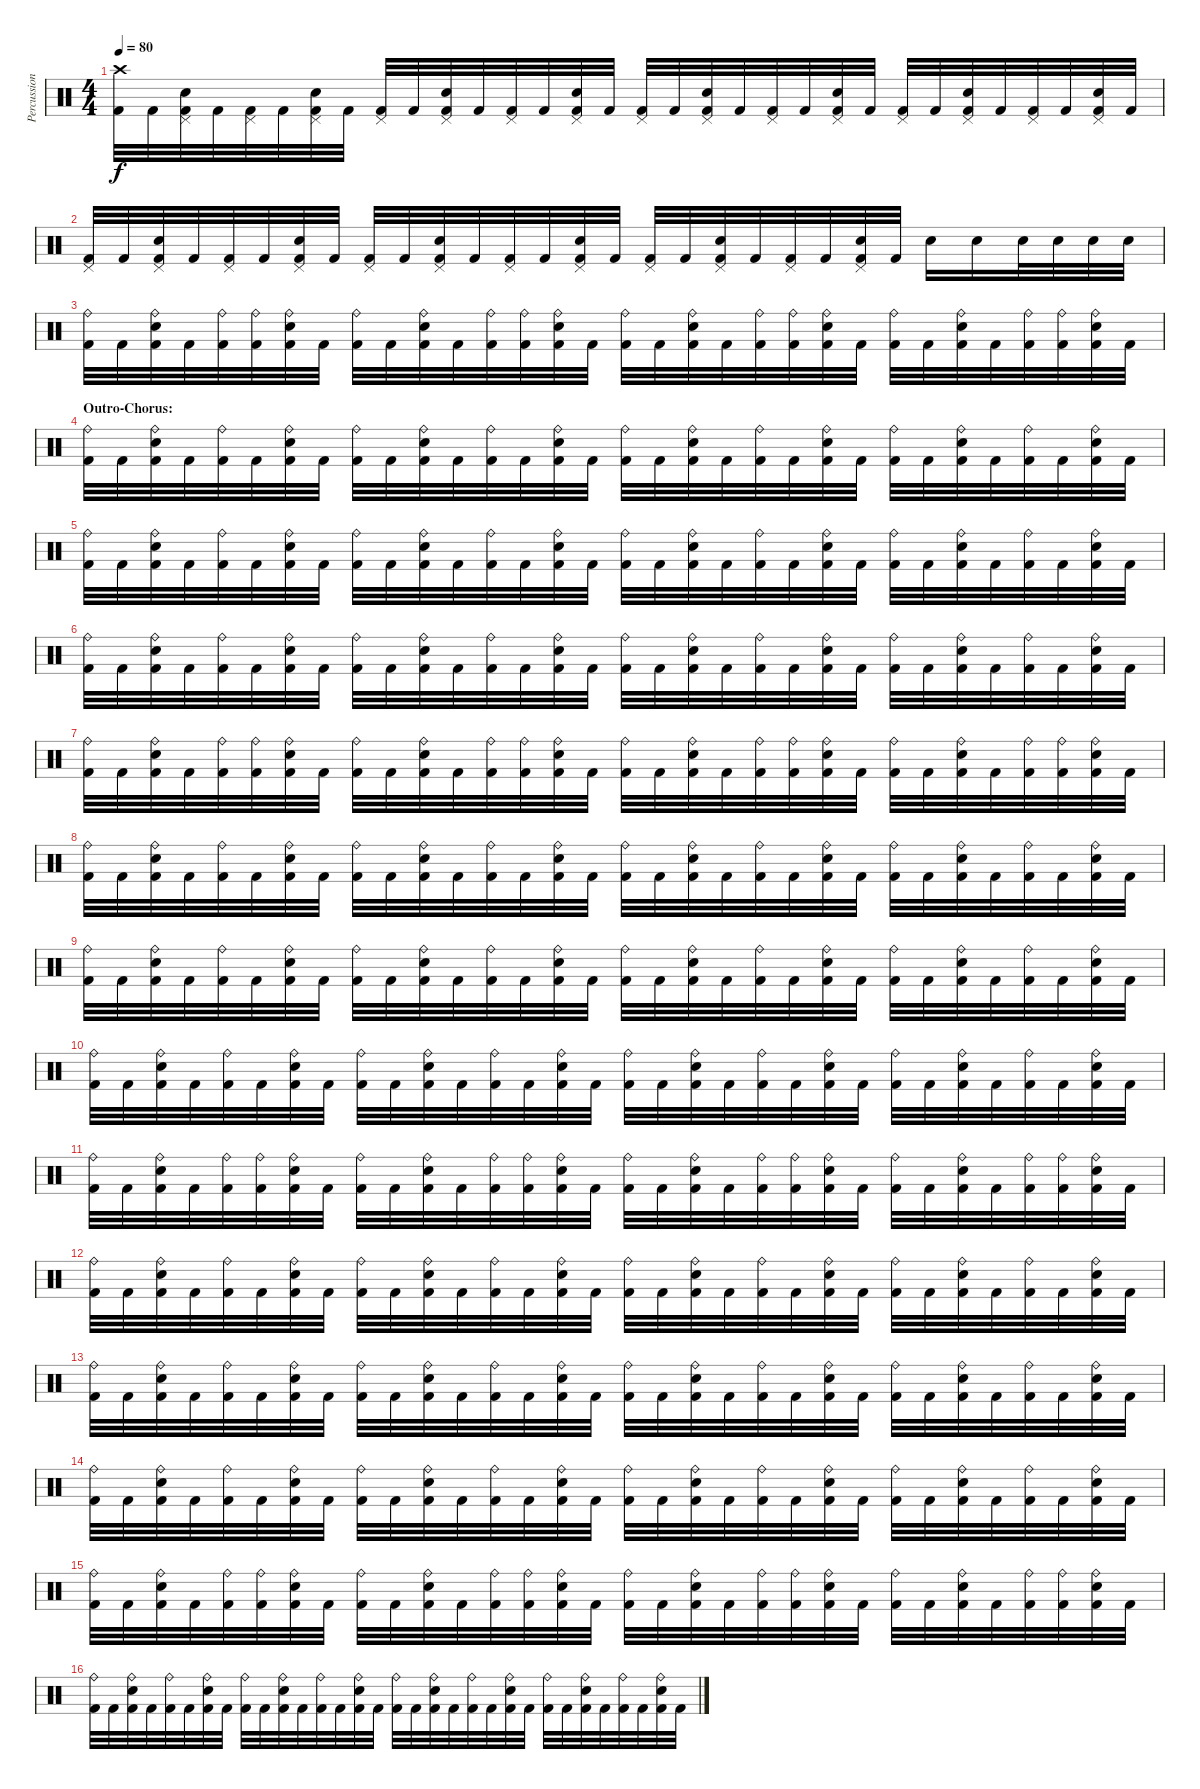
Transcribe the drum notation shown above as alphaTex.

\track ("Percussion" "Percussion") {instrument percussion}
\staff {score}
\articulation defaults
\ts (4 4)
\tempo 80
\clef neutral
\ks c
("Crash high (hit)" "Kick (hit) 2").32{dy f} "Kick (hit) 2".32 ("Pedal Hi-Hat (hit)" "Electric Snare (hit)" "Kick (hit) 2").32 "Kick (hit) 2".32 ("Pedal Hi-Hat (hit)" "Kick (hit) 2").32 "Kick (hit) 2".32 ("Pedal Hi-Hat (hit)" "Electric Snare (hit)" "Kick (hit) 2").32 "Kick (hit) 2".32 ("Pedal Hi-Hat (hit)" "Kick (hit) 2").32 "Kick (hit) 2".32 ("Pedal Hi-Hat (hit)" "Electric Snare (hit)" "Kick (hit) 2").32 "Kick (hit) 2".32 ("Pedal Hi-Hat (hit)" "Kick (hit) 2").32 "Kick (hit) 2".32 ("Pedal Hi-Hat (hit)" "Electric Snare (hit)" "Kick (hit) 2").32 "Kick (hit) 2".32 ("Pedal Hi-Hat (hit)" "Kick (hit) 2").32 "Kick (hit) 2".32 ("Pedal Hi-Hat (hit)" "Electric Snare (hit)" "Kick (hit) 2").32 "Kick (hit) 2".32 ("Pedal Hi-Hat (hit)" "Kick (hit) 2").32 "Kick (hit) 2".32 ("Pedal Hi-Hat (hit)" "Electric Snare (hit)" "Kick (hit) 2").32 "Kick (hit) 2".32 ("Pedal Hi-Hat (hit)" "Kick (hit) 2").32 "Kick (hit) 2".32 ("Pedal Hi-Hat (hit)" "Electric Snare (hit)" "Kick (hit) 2").32 "Kick (hit) 2".32 ("Pedal Hi-Hat (hit)" "Kick (hit) 2").32 "Kick (hit) 2".32 ("Pedal Hi-Hat (hit)" "Electric Snare (hit)" "Kick (hit) 2").32 "Kick (hit) 2".32 |
("Pedal Hi-Hat (hit)" "Kick (hit) 2").32 "Kick (hit) 2".32 ("Pedal Hi-Hat (hit)" "Electric Snare (hit)" "Kick (hit) 2").32 "Kick (hit) 2".32 ("Pedal Hi-Hat (hit)" "Kick (hit) 2").32 "Kick (hit) 2".32 ("Pedal Hi-Hat (hit)" "Electric Snare (hit)" "Kick (hit) 2").32 "Kick (hit) 2".32 ("Pedal Hi-Hat (hit)" "Kick (hit) 2").32 "Kick (hit) 2".32 ("Pedal Hi-Hat (hit)" "Electric Snare (hit)" "Kick (hit) 2").32 "Kick (hit) 2".32 ("Pedal Hi-Hat (hit)" "Kick (hit) 2").32 "Kick (hit) 2".32 ("Pedal Hi-Hat (hit)" "Electric Snare (hit)" "Kick (hit) 2").32 "Kick (hit) 2".32 ("Pedal Hi-Hat (hit)" "Kick (hit) 2").32 "Kick (hit) 2".32 ("Pedal Hi-Hat (hit)" "Electric Snare (hit)" "Kick (hit) 2").32 "Kick (hit) 2".32 ("Pedal Hi-Hat (hit)" "Kick (hit) 2").32 "Kick (hit) 2".32 ("Pedal Hi-Hat (hit)" "Electric Snare (hit)" "Kick (hit) 2").32 "Kick (hit) 2".32 "Electric Snare (hit)".16 "Electric Snare (hit)".16 "Electric Snare (hit)".32 "Electric Snare (hit)".32 "Electric Snare (hit)".32 "Electric Snare (hit)".32 |
("Ride (bell)" "Kick (hit) 2").32 "Kick (hit) 2".32 ("Ride (bell)" "Electric Snare (hit)" "Kick (hit) 2").32 "Kick (hit) 2".32 ("Ride (bell)" "Kick (hit) 2").32 ("Ride (bell)" "Kick (hit) 2").32 ("Ride (bell)" "Electric Snare (hit)" "Kick (hit) 2").32 "Kick (hit) 2".32 ("Ride (bell)" "Kick (hit) 2").32 "Kick (hit) 2".32 ("Ride (bell)" "Electric Snare (hit)" "Kick (hit) 2").32 "Kick (hit) 2".32 ("Ride (bell)" "Kick (hit) 2").32 ("Ride (bell)" "Kick (hit) 2").32 ("Ride (bell)" "Electric Snare (hit)" "Kick (hit) 2").32 "Kick (hit) 2".32 ("Ride (bell)" "Kick (hit) 2").32 "Kick (hit) 2".32 ("Ride (bell)" "Electric Snare (hit)" "Kick (hit) 2").32 "Kick (hit) 2".32 ("Ride (bell)" "Kick (hit) 2").32 ("Ride (bell)" "Kick (hit) 2").32 ("Ride (bell)" "Electric Snare (hit)" "Kick (hit) 2").32 "Kick (hit) 2".32 ("Ride (bell)" "Kick (hit) 2").32 "Kick (hit) 2".32 ("Ride (bell)" "Electric Snare (hit)" "Kick (hit) 2").32 "Kick (hit) 2".32 ("Ride (bell)" "Kick (hit) 2").32 ("Ride (bell)" "Kick (hit) 2").32 ("Ride (bell)" "Electric Snare (hit)" "Kick (hit) 2").32 "Kick (hit) 2".32 |
\section ("" "Outro-Chorus:")
("Ride (bell)" "Kick (hit) 2").32 "Kick (hit) 2".32 ("Ride (bell)" "Electric Snare (hit)" "Kick (hit) 2").32 "Kick (hit) 2".32 ("Ride (bell)" "Kick (hit) 2").32 "Kick (hit) 2".32 ("Ride (bell)" "Electric Snare (hit)" "Kick (hit) 2").32 "Kick (hit) 2".32 ("Ride (bell)" "Kick (hit) 2").32 "Kick (hit) 2".32 ("Ride (bell)" "Electric Snare (hit)" "Kick (hit) 2").32 "Kick (hit) 2".32 ("Ride (bell)" "Kick (hit) 2").32 "Kick (hit) 2".32 ("Ride (bell)" "Electric Snare (hit)" "Kick (hit) 2").32 "Kick (hit) 2".32 ("Ride (bell)" "Kick (hit) 2").32 "Kick (hit) 2".32 ("Ride (bell)" "Electric Snare (hit)" "Kick (hit) 2").32 "Kick (hit) 2".32 ("Ride (bell)" "Kick (hit) 2").32 "Kick (hit) 2".32 ("Ride (bell)" "Electric Snare (hit)" "Kick (hit) 2").32 "Kick (hit) 2".32 ("Ride (bell)" "Kick (hit) 2").32 "Kick (hit) 2".32 ("Ride (bell)" "Electric Snare (hit)" "Kick (hit) 2").32 "Kick (hit) 2".32 ("Ride (bell)" "Kick (hit) 2").32 "Kick (hit) 2".32 ("Ride (bell)" "Electric Snare (hit)" "Kick (hit) 2").32 "Kick (hit) 2".32 |
("Ride (bell)" "Kick (hit) 2").32 "Kick (hit) 2".32 ("Ride (bell)" "Electric Snare (hit)" "Kick (hit) 2").32 "Kick (hit) 2".32 ("Ride (bell)" "Kick (hit) 2").32 "Kick (hit) 2".32 ("Ride (bell)" "Electric Snare (hit)" "Kick (hit) 2").32 "Kick (hit) 2".32 ("Ride (bell)" "Kick (hit) 2").32 "Kick (hit) 2".32 ("Ride (bell)" "Electric Snare (hit)" "Kick (hit) 2").32 "Kick (hit) 2".32 ("Ride (bell)" "Kick (hit) 2").32 "Kick (hit) 2".32 ("Ride (bell)" "Electric Snare (hit)" "Kick (hit) 2").32 "Kick (hit) 2".32 ("Ride (bell)" "Kick (hit) 2").32 "Kick (hit) 2".32 ("Ride (bell)" "Electric Snare (hit)" "Kick (hit) 2").32 "Kick (hit) 2".32 ("Ride (bell)" "Kick (hit) 2").32 "Kick (hit) 2".32 ("Ride (bell)" "Electric Snare (hit)" "Kick (hit) 2").32 "Kick (hit) 2".32 ("Ride (bell)" "Kick (hit) 2").32 "Kick (hit) 2".32 ("Ride (bell)" "Electric Snare (hit)" "Kick (hit) 2").32 "Kick (hit) 2".32 ("Ride (bell)" "Kick (hit) 2").32 "Kick (hit) 2".32 ("Ride (bell)" "Electric Snare (hit)" "Kick (hit) 2").32 "Kick (hit) 2".32 |
("Ride (bell)" "Kick (hit) 2").32 "Kick (hit) 2".32 ("Ride (bell)" "Electric Snare (hit)" "Kick (hit) 2").32 "Kick (hit) 2".32 ("Ride (bell)" "Kick (hit) 2").32 "Kick (hit) 2".32 ("Ride (bell)" "Electric Snare (hit)" "Kick (hit) 2").32 "Kick (hit) 2".32 ("Ride (bell)" "Kick (hit) 2").32 "Kick (hit) 2".32 ("Ride (bell)" "Electric Snare (hit)" "Kick (hit) 2").32 "Kick (hit) 2".32 ("Ride (bell)" "Kick (hit) 2").32 "Kick (hit) 2".32 ("Ride (bell)" "Electric Snare (hit)" "Kick (hit) 2").32 "Kick (hit) 2".32 ("Ride (bell)" "Kick (hit) 2").32 "Kick (hit) 2".32 ("Ride (bell)" "Electric Snare (hit)" "Kick (hit) 2").32 "Kick (hit) 2".32 ("Ride (bell)" "Kick (hit) 2").32 "Kick (hit) 2".32 ("Ride (bell)" "Electric Snare (hit)" "Kick (hit) 2").32 "Kick (hit) 2".32 ("Ride (bell)" "Kick (hit) 2").32 "Kick (hit) 2".32 ("Ride (bell)" "Electric Snare (hit)" "Kick (hit) 2").32 "Kick (hit) 2".32 ("Ride (bell)" "Kick (hit) 2").32 "Kick (hit) 2".32 ("Ride (bell)" "Electric Snare (hit)" "Kick (hit) 2").32 "Kick (hit) 2".32 |
("Ride (bell)" "Kick (hit) 2").32 "Kick (hit) 2".32 ("Ride (bell)" "Electric Snare (hit)" "Kick (hit) 2").32 "Kick (hit) 2".32 ("Ride (bell)" "Kick (hit) 2").32 ("Ride (bell)" "Kick (hit) 2").32 ("Ride (bell)" "Electric Snare (hit)" "Kick (hit) 2").32 "Kick (hit) 2".32 ("Ride (bell)" "Kick (hit) 2").32 "Kick (hit) 2".32 ("Ride (bell)" "Electric Snare (hit)" "Kick (hit) 2").32 "Kick (hit) 2".32 ("Ride (bell)" "Kick (hit) 2").32 ("Ride (bell)" "Kick (hit) 2").32 ("Ride (bell)" "Electric Snare (hit)" "Kick (hit) 2").32 "Kick (hit) 2".32 ("Ride (bell)" "Kick (hit) 2").32 "Kick (hit) 2".32 ("Ride (bell)" "Electric Snare (hit)" "Kick (hit) 2").32 "Kick (hit) 2".32 ("Ride (bell)" "Kick (hit) 2").32 ("Ride (bell)" "Kick (hit) 2").32 ("Ride (bell)" "Electric Snare (hit)" "Kick (hit) 2").32 "Kick (hit) 2".32 ("Ride (bell)" "Kick (hit) 2").32 "Kick (hit) 2".32 ("Ride (bell)" "Electric Snare (hit)" "Kick (hit) 2").32 "Kick (hit) 2".32 ("Ride (bell)" "Kick (hit) 2").32 ("Ride (bell)" "Kick (hit) 2").32 ("Ride (bell)" "Electric Snare (hit)" "Kick (hit) 2").32 "Kick (hit) 2".32 |
("Ride (bell)" "Kick (hit) 2").32 "Kick (hit) 2".32 ("Ride (bell)" "Electric Snare (hit)" "Kick (hit) 2").32 "Kick (hit) 2".32 ("Ride (bell)" "Kick (hit) 2").32 "Kick (hit) 2".32 ("Ride (bell)" "Electric Snare (hit)" "Kick (hit) 2").32 "Kick (hit) 2".32 ("Ride (bell)" "Kick (hit) 2").32 "Kick (hit) 2".32 ("Ride (bell)" "Electric Snare (hit)" "Kick (hit) 2").32 "Kick (hit) 2".32 ("Ride (bell)" "Kick (hit) 2").32 "Kick (hit) 2".32 ("Ride (bell)" "Electric Snare (hit)" "Kick (hit) 2").32 "Kick (hit) 2".32 ("Ride (bell)" "Kick (hit) 2").32 "Kick (hit) 2".32 ("Ride (bell)" "Electric Snare (hit)" "Kick (hit) 2").32 "Kick (hit) 2".32 ("Ride (bell)" "Kick (hit) 2").32 "Kick (hit) 2".32 ("Ride (bell)" "Electric Snare (hit)" "Kick (hit) 2").32 "Kick (hit) 2".32 ("Ride (bell)" "Kick (hit) 2").32 "Kick (hit) 2".32 ("Ride (bell)" "Electric Snare (hit)" "Kick (hit) 2").32 "Kick (hit) 2".32 ("Ride (bell)" "Kick (hit) 2").32 "Kick (hit) 2".32 ("Ride (bell)" "Electric Snare (hit)" "Kick (hit) 2").32 "Kick (hit) 2".32 |
("Ride (bell)" "Kick (hit) 2").32 "Kick (hit) 2".32 ("Ride (bell)" "Electric Snare (hit)" "Kick (hit) 2").32 "Kick (hit) 2".32 ("Ride (bell)" "Kick (hit) 2").32 "Kick (hit) 2".32 ("Ride (bell)" "Electric Snare (hit)" "Kick (hit) 2").32 "Kick (hit) 2".32 ("Ride (bell)" "Kick (hit) 2").32 "Kick (hit) 2".32 ("Ride (bell)" "Electric Snare (hit)" "Kick (hit) 2").32 "Kick (hit) 2".32 ("Ride (bell)" "Kick (hit) 2").32 "Kick (hit) 2".32 ("Ride (bell)" "Electric Snare (hit)" "Kick (hit) 2").32 "Kick (hit) 2".32 ("Ride (bell)" "Kick (hit) 2").32 "Kick (hit) 2".32 ("Ride (bell)" "Electric Snare (hit)" "Kick (hit) 2").32 "Kick (hit) 2".32 ("Ride (bell)" "Kick (hit) 2").32 "Kick (hit) 2".32 ("Ride (bell)" "Electric Snare (hit)" "Kick (hit) 2").32 "Kick (hit) 2".32 ("Ride (bell)" "Kick (hit) 2").32 "Kick (hit) 2".32 ("Ride (bell)" "Electric Snare (hit)" "Kick (hit) 2").32 "Kick (hit) 2".32 ("Ride (bell)" "Kick (hit) 2").32 "Kick (hit) 2".32 ("Ride (bell)" "Electric Snare (hit)" "Kick (hit) 2").32 "Kick (hit) 2".32 |
("Ride (bell)" "Kick (hit) 2").32 "Kick (hit) 2".32 ("Ride (bell)" "Electric Snare (hit)" "Kick (hit) 2").32 "Kick (hit) 2".32 ("Ride (bell)" "Kick (hit) 2").32 "Kick (hit) 2".32 ("Ride (bell)" "Electric Snare (hit)" "Kick (hit) 2").32 "Kick (hit) 2".32 ("Ride (bell)" "Kick (hit) 2").32 "Kick (hit) 2".32 ("Ride (bell)" "Electric Snare (hit)" "Kick (hit) 2").32 "Kick (hit) 2".32 ("Ride (bell)" "Kick (hit) 2").32 "Kick (hit) 2".32 ("Ride (bell)" "Electric Snare (hit)" "Kick (hit) 2").32 "Kick (hit) 2".32 ("Ride (bell)" "Kick (hit) 2").32 "Kick (hit) 2".32 ("Ride (bell)" "Electric Snare (hit)" "Kick (hit) 2").32 "Kick (hit) 2".32 ("Ride (bell)" "Kick (hit) 2").32 "Kick (hit) 2".32 ("Ride (bell)" "Electric Snare (hit)" "Kick (hit) 2").32 "Kick (hit) 2".32 ("Ride (bell)" "Kick (hit) 2").32 "Kick (hit) 2".32 ("Ride (bell)" "Electric Snare (hit)" "Kick (hit) 2").32 "Kick (hit) 2".32 ("Ride (bell)" "Kick (hit) 2").32 "Kick (hit) 2".32 ("Ride (bell)" "Electric Snare (hit)" "Kick (hit) 2").32 "Kick (hit) 2".32 |
("Ride (bell)" "Kick (hit) 2").32 "Kick (hit) 2".32 ("Ride (bell)" "Electric Snare (hit)" "Kick (hit) 2").32 "Kick (hit) 2".32 ("Ride (bell)" "Kick (hit) 2").32 ("Ride (bell)" "Kick (hit) 2").32 ("Ride (bell)" "Electric Snare (hit)" "Kick (hit) 2").32 "Kick (hit) 2".32 ("Ride (bell)" "Kick (hit) 2").32 "Kick (hit) 2".32 ("Ride (bell)" "Electric Snare (hit)" "Kick (hit) 2").32 "Kick (hit) 2".32 ("Ride (bell)" "Kick (hit) 2").32 ("Ride (bell)" "Kick (hit) 2").32 ("Ride (bell)" "Electric Snare (hit)" "Kick (hit) 2").32 "Kick (hit) 2".32 ("Ride (bell)" "Kick (hit) 2").32 "Kick (hit) 2".32 ("Ride (bell)" "Electric Snare (hit)" "Kick (hit) 2").32 "Kick (hit) 2".32 ("Ride (bell)" "Kick (hit) 2").32 ("Ride (bell)" "Kick (hit) 2").32 ("Ride (bell)" "Electric Snare (hit)" "Kick (hit) 2").32 "Kick (hit) 2".32 ("Ride (bell)" "Kick (hit) 2").32 "Kick (hit) 2".32 ("Ride (bell)" "Electric Snare (hit)" "Kick (hit) 2").32 "Kick (hit) 2".32 ("Ride (bell)" "Kick (hit) 2").32 ("Ride (bell)" "Kick (hit) 2").32 ("Ride (bell)" "Electric Snare (hit)" "Kick (hit) 2").32 "Kick (hit) 2".32 |
("Ride (bell)" "Kick (hit) 2").32 "Kick (hit) 2".32 ("Ride (bell)" "Electric Snare (hit)" "Kick (hit) 2").32 "Kick (hit) 2".32 ("Ride (bell)" "Kick (hit) 2").32 "Kick (hit) 2".32 ("Ride (bell)" "Electric Snare (hit)" "Kick (hit) 2").32 "Kick (hit) 2".32 ("Ride (bell)" "Kick (hit) 2").32 "Kick (hit) 2".32 ("Ride (bell)" "Electric Snare (hit)" "Kick (hit) 2").32 "Kick (hit) 2".32 ("Ride (bell)" "Kick (hit) 2").32 "Kick (hit) 2".32 ("Ride (bell)" "Electric Snare (hit)" "Kick (hit) 2").32 "Kick (hit) 2".32 ("Ride (bell)" "Kick (hit) 2").32 "Kick (hit) 2".32 ("Ride (bell)" "Electric Snare (hit)" "Kick (hit) 2").32 "Kick (hit) 2".32 ("Ride (bell)" "Kick (hit) 2").32 "Kick (hit) 2".32 ("Ride (bell)" "Electric Snare (hit)" "Kick (hit) 2").32 "Kick (hit) 2".32 ("Ride (bell)" "Kick (hit) 2").32 "Kick (hit) 2".32 ("Ride (bell)" "Electric Snare (hit)" "Kick (hit) 2").32 "Kick (hit) 2".32 ("Ride (bell)" "Kick (hit) 2").32 "Kick (hit) 2".32 ("Ride (bell)" "Electric Snare (hit)" "Kick (hit) 2").32 "Kick (hit) 2".32 |
("Ride (bell)" "Kick (hit) 2").32 "Kick (hit) 2".32 ("Ride (bell)" "Electric Snare (hit)" "Kick (hit) 2").32 "Kick (hit) 2".32 ("Ride (bell)" "Kick (hit) 2").32 "Kick (hit) 2".32 ("Ride (bell)" "Electric Snare (hit)" "Kick (hit) 2").32 "Kick (hit) 2".32 ("Ride (bell)" "Kick (hit) 2").32 "Kick (hit) 2".32 ("Ride (bell)" "Electric Snare (hit)" "Kick (hit) 2").32 "Kick (hit) 2".32 ("Ride (bell)" "Kick (hit) 2").32 "Kick (hit) 2".32 ("Ride (bell)" "Electric Snare (hit)" "Kick (hit) 2").32 "Kick (hit) 2".32 ("Ride (bell)" "Kick (hit) 2").32 "Kick (hit) 2".32 ("Ride (bell)" "Electric Snare (hit)" "Kick (hit) 2").32 "Kick (hit) 2".32 ("Ride (bell)" "Kick (hit) 2").32 "Kick (hit) 2".32 ("Ride (bell)" "Electric Snare (hit)" "Kick (hit) 2").32 "Kick (hit) 2".32 ("Ride (bell)" "Kick (hit) 2").32 "Kick (hit) 2".32 ("Ride (bell)" "Electric Snare (hit)" "Kick (hit) 2").32 "Kick (hit) 2".32 ("Ride (bell)" "Kick (hit) 2").32 "Kick (hit) 2".32 ("Ride (bell)" "Electric Snare (hit)" "Kick (hit) 2").32 "Kick (hit) 2".32 |
("Ride (bell)" "Kick (hit) 2").32 "Kick (hit) 2".32 ("Ride (bell)" "Electric Snare (hit)" "Kick (hit) 2").32 "Kick (hit) 2".32 ("Ride (bell)" "Kick (hit) 2").32 "Kick (hit) 2".32 ("Ride (bell)" "Electric Snare (hit)" "Kick (hit) 2").32 "Kick (hit) 2".32 ("Ride (bell)" "Kick (hit) 2").32 "Kick (hit) 2".32 ("Ride (bell)" "Electric Snare (hit)" "Kick (hit) 2").32 "Kick (hit) 2".32 ("Ride (bell)" "Kick (hit) 2").32 "Kick (hit) 2".32 ("Ride (bell)" "Electric Snare (hit)" "Kick (hit) 2").32 "Kick (hit) 2".32 ("Ride (bell)" "Kick (hit) 2").32 "Kick (hit) 2".32 ("Ride (bell)" "Electric Snare (hit)" "Kick (hit) 2").32 "Kick (hit) 2".32 ("Ride (bell)" "Kick (hit) 2").32 "Kick (hit) 2".32 ("Ride (bell)" "Electric Snare (hit)" "Kick (hit) 2").32 "Kick (hit) 2".32 ("Ride (bell)" "Kick (hit) 2").32 "Kick (hit) 2".32 ("Ride (bell)" "Electric Snare (hit)" "Kick (hit) 2").32 "Kick (hit) 2".32 ("Ride (bell)" "Kick (hit) 2").32 "Kick (hit) 2".32 ("Ride (bell)" "Electric Snare (hit)" "Kick (hit) 2").32 "Kick (hit) 2".32 |
("Ride (bell)" "Kick (hit) 2").32 "Kick (hit) 2".32 ("Ride (bell)" "Electric Snare (hit)" "Kick (hit) 2").32 "Kick (hit) 2".32 ("Ride (bell)" "Kick (hit) 2").32 ("Ride (bell)" "Kick (hit) 2").32 ("Ride (bell)" "Electric Snare (hit)" "Kick (hit) 2").32 "Kick (hit) 2".32 ("Ride (bell)" "Kick (hit) 2").32 "Kick (hit) 2".32 ("Ride (bell)" "Electric Snare (hit)" "Kick (hit) 2").32 "Kick (hit) 2".32 ("Ride (bell)" "Kick (hit) 2").32 ("Ride (bell)" "Kick (hit) 2").32 ("Ride (bell)" "Electric Snare (hit)" "Kick (hit) 2").32 "Kick (hit) 2".32 ("Ride (bell)" "Kick (hit) 2").32 "Kick (hit) 2".32 ("Ride (bell)" "Electric Snare (hit)" "Kick (hit) 2").32 "Kick (hit) 2".32 ("Ride (bell)" "Kick (hit) 2").32 ("Ride (bell)" "Kick (hit) 2").32 ("Ride (bell)" "Electric Snare (hit)" "Kick (hit) 2").32 "Kick (hit) 2".32 ("Ride (bell)" "Kick (hit) 2").32 "Kick (hit) 2".32 ("Ride (bell)" "Electric Snare (hit)" "Kick (hit) 2").32 "Kick (hit) 2".32 ("Ride (bell)" "Kick (hit) 2").32 ("Ride (bell)" "Kick (hit) 2").32 ("Ride (bell)" "Electric Snare (hit)" "Kick (hit) 2").32 "Kick (hit) 2".32 |
("Ride (bell)" "Kick (hit) 2").32 "Kick (hit) 2".32 ("Ride (bell)" "Electric Snare (hit)" "Kick (hit) 2").32 "Kick (hit) 2".32 ("Ride (bell)" "Kick (hit) 2").32 "Kick (hit) 2".32 ("Ride (bell)" "Electric Snare (hit)" "Kick (hit) 2").32 "Kick (hit) 2".32 ("Ride (bell)" "Kick (hit) 2").32 "Kick (hit) 2".32 ("Ride (bell)" "Electric Snare (hit)" "Kick (hit) 2").32 "Kick (hit) 2".32 ("Ride (bell)" "Kick (hit) 2").32 "Kick (hit) 2".32 ("Ride (bell)" "Electric Snare (hit)" "Kick (hit) 2").32 "Kick (hit) 2".32 ("Ride (bell)" "Kick (hit) 2").32 "Kick (hit) 2".32 ("Ride (bell)" "Electric Snare (hit)" "Kick (hit) 2").32 "Kick (hit) 2".32 ("Ride (bell)" "Kick (hit) 2").32 "Kick (hit) 2".32 ("Ride (bell)" "Electric Snare (hit)" "Kick (hit) 2").32 "Kick (hit) 2".32 ("Ride (bell)" "Kick (hit) 2").32 "Kick (hit) 2".32 ("Ride (bell)" "Electric Snare (hit)" "Kick (hit) 2").32 "Kick (hit) 2".32 ("Ride (bell)" "Kick (hit) 2").32 "Kick (hit) 2".32 ("Ride (bell)" "Electric Snare (hit)" "Kick (hit) 2").32 "Kick (hit) 2".32
